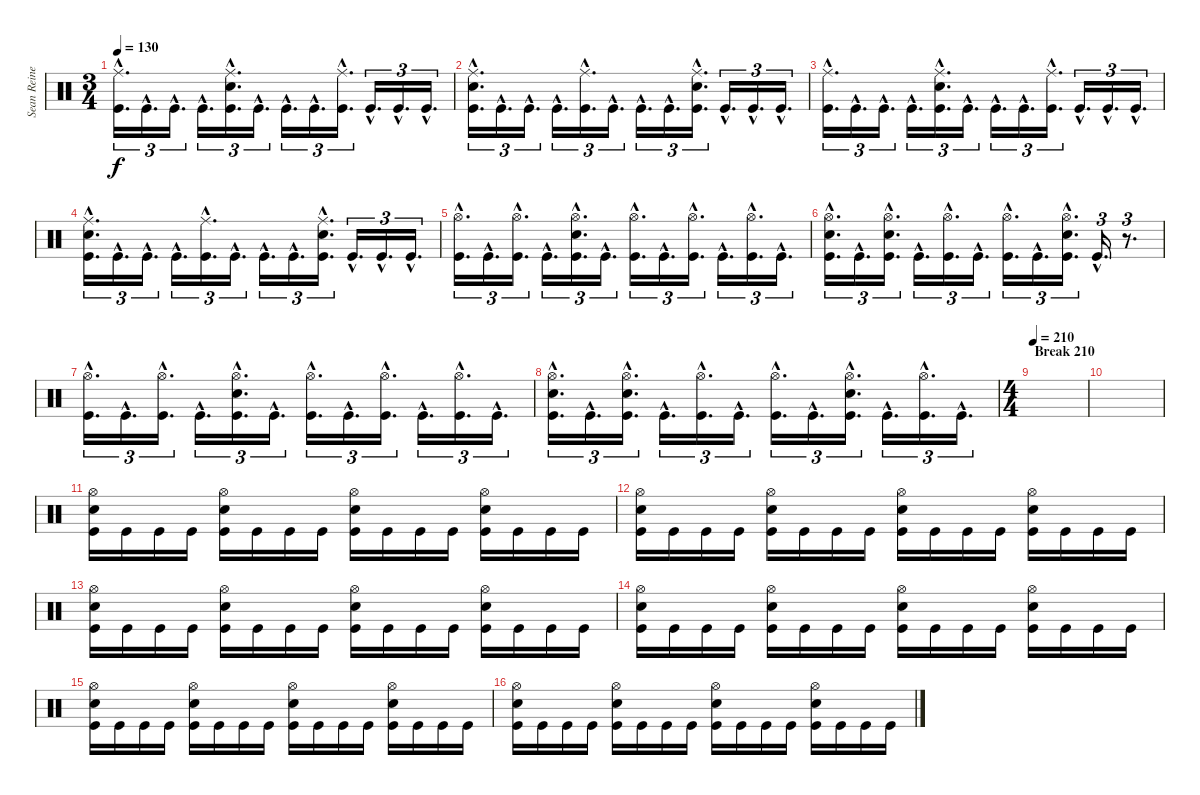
\track ("Sean Reinert" "Sean Reine") {instrument percussion}
\staff {score}
\articulation defaults
\ts (3 4)
\tempo 130
\clef neutral
\ks c
("Ride (middle)"{hac} "Kick (hit)"{hac}).16{d tu (3 2) dy f} "Kick (hit)"{hac}.16{d tu (3 2)} "Kick (hit)"{hac}.16{d tu (3 2)} "Kick (hit)"{hac}.16{d tu (3 2)} ("Ride (middle)"{hac} "Snare (hit) 2"{hac} "Kick (hit)"{hac}).16{d tu (3 2)} "Kick (hit)"{hac}.16{d tu (3 2)} "Kick (hit)"{hac}.16{d tu (3 2)} "Kick (hit)"{hac}.16{d tu (3 2)} ("Ride (middle)"{hac} "Kick (hit)"{hac}).16{d tu (3 2)} "Kick (hit)"{hac}.16{d tu (3 2)} "Kick (hit)"{hac}.16{d tu (3 2)} "Kick (hit)"{hac}.16{d tu (3 2)} |
("Ride (middle)"{hac} "Snare (hit) 2"{hac} "Kick (hit)"{hac}).16{d tu (3 2)} "Kick (hit)"{hac}.16{d tu (3 2)} "Kick (hit)"{hac}.16{d tu (3 2)} "Kick (hit)"{hac}.16{d tu (3 2)} ("Ride (middle)"{hac} "Kick (hit)"{hac}).16{d tu (3 2)} "Kick (hit)"{hac}.16{d tu (3 2)} "Kick (hit)"{hac}.16{d tu (3 2)} "Kick (hit)"{hac}.16{d tu (3 2)} ("Ride (middle)"{hac} "Snare (hit) 2"{hac} "Kick (hit)"{hac}).16{d tu (3 2)} "Kick (hit)"{hac}.16{d tu (3 2)} "Kick (hit)"{hac}.16{d tu (3 2)} "Kick (hit)"{hac}.16{d tu (3 2)} |
("Ride (middle)"{hac} "Kick (hit)"{hac}).16{d tu (3 2)} "Kick (hit)"{hac}.16{d tu (3 2)} "Kick (hit)"{hac}.16{d tu (3 2)} "Kick (hit)"{hac}.16{d tu (3 2)} ("Ride (middle)"{hac} "Snare (hit) 2"{hac} "Kick (hit)"{hac}).16{d tu (3 2)} "Kick (hit)"{hac}.16{d tu (3 2)} "Kick (hit)"{hac}.16{d tu (3 2)} "Kick (hit)"{hac}.16{d tu (3 2)} ("Ride (middle)"{hac} "Kick (hit)"{hac}).16{d tu (3 2)} "Kick (hit)"{hac}.16{d tu (3 2)} "Kick (hit)"{hac}.16{d tu (3 2)} "Kick (hit)"{hac}.16{d tu (3 2)} |
("Ride (middle)"{hac} "Snare (hit) 2"{hac} "Kick (hit)"{hac}).16{d tu (3 2)} "Kick (hit)"{hac}.16{d tu (3 2)} "Kick (hit)"{hac}.16{d tu (3 2)} "Kick (hit)"{hac}.16{d tu (3 2)} ("Ride (middle)"{hac} "Kick (hit)"{hac}).16{d tu (3 2)} "Kick (hit)"{hac}.16{d tu (3 2)} "Kick (hit)"{hac}.16{d tu (3 2)} "Kick (hit)"{hac}.16{d tu (3 2)} ("Ride (middle)"{hac} "Snare (hit) 2"{hac} "Kick (hit)"{hac}).16{d tu (3 2)} "Kick (hit)"{hac}.16{d tu (3 2)} "Kick (hit)"{hac}.16{d tu (3 2)} "Kick (hit)"{hac}.16{d tu (3 2)} |
("Hi-Hat (open)"{hac} "Kick (hit)"{hac}).16{d tu (3 2)} "Kick (hit)"{hac}.16{d tu (3 2)} ("Hi-Hat (open)"{hac} "Kick (hit)"{hac}).16{d tu (3 2)} "Kick (hit)"{hac}.16{d tu (3 2)} ("Hi-Hat (open)"{hac} "Snare (hit) 2"{hac} "Kick (hit)"{hac}).16{d tu (3 2)} "Kick (hit)"{hac}.16{d tu (3 2)} ("Hi-Hat (open)"{hac} "Kick (hit)"{hac}).16{d tu (3 2)} "Kick (hit)"{hac}.16{d tu (3 2)} ("Hi-Hat (open)"{hac} "Kick (hit)"{hac}).16{d tu (3 2)} "Kick (hit)"{hac}.16{d tu (3 2)} ("Hi-Hat (open)"{hac} "Kick (hit)"{hac}).16{d tu (3 2)} "Kick (hit)"{hac}.16{d tu (3 2)} |
("Hi-Hat (open)"{hac} "Snare (hit) 2"{hac} "Kick (hit)"{hac}).16{d tu (3 2)} "Kick (hit)"{hac}.16{d tu (3 2)} ("Hi-Hat (open)"{hac} "Snare (hit) 2"{hac} "Kick (hit)"{hac}).16{d tu (3 2)} "Kick (hit)"{hac}.16{d tu (3 2)} ("Hi-Hat (open)"{hac} "Kick (hit)"{hac}).16{d tu (3 2)} "Kick (hit)"{hac}.16{d tu (3 2)} ("Hi-Hat (open)"{hac} "Kick (hit)"{hac}).16{d tu (3 2)} "Kick (hit)"{hac}.16{d tu (3 2)} ("Hi-Hat (open)"{hac} "Snare (hit) 2"{hac} "Kick (hit)"{hac}).16{d tu (3 2)} "Kick (hit)"{hac}.16{d tu (3 2)} r.8{d tu (3 2)} |
("Hi-Hat (open)"{hac} "Kick (hit)"{hac}).16{d tu (3 2)} "Kick (hit)"{hac}.16{d tu (3 2)} ("Hi-Hat (open)"{hac} "Kick (hit)"{hac}).16{d tu (3 2)} "Kick (hit)"{hac}.16{d tu (3 2)} ("Hi-Hat (open)"{hac} "Snare (hit) 2"{hac} "Kick (hit)"{hac}).16{d tu (3 2)} "Kick (hit)"{hac}.16{d tu (3 2)} ("Hi-Hat (open)"{hac} "Kick (hit)"{hac}).16{d tu (3 2)} "Kick (hit)"{hac}.16{d tu (3 2)} ("Hi-Hat (open)"{hac} "Kick (hit)"{hac}).16{d tu (3 2)} "Kick (hit)"{hac}.16{d tu (3 2)} ("Hi-Hat (open)"{hac} "Kick (hit)"{hac}).16{d tu (3 2)} "Kick (hit)"{hac}.16{d tu (3 2)} |
("Hi-Hat (open)"{hac} "Snare (hit) 2"{hac} "Kick (hit)"{hac}).16{d tu (3 2)} "Kick (hit)"{hac}.16{d tu (3 2)} ("Hi-Hat (open)"{hac} "Snare (hit) 2"{hac} "Kick (hit)"{hac}).16{d tu (3 2)} "Kick (hit)"{hac}.16{d tu (3 2)} ("Hi-Hat (open)"{hac} "Kick (hit)"{hac}).16{d tu (3 2)} "Kick (hit)"{hac}.16{d tu (3 2)} ("Hi-Hat (open)"{hac} "Kick (hit)"{hac}).16{d tu (3 2)} "Kick (hit)"{hac}.16{d tu (3 2)} ("Hi-Hat (open)"{hac} "Snare (hit) 2"{hac} "Kick (hit)"{hac}).16{d tu (3 2)} "Kick (hit)"{hac}.16{d tu (3 2)} ("Hi-Hat (open)"{hac} "Kick (hit)"{hac}).16{d tu (3 2)} "Kick (hit)"{hac}.16{d tu (3 2)} |
\ts (4 4)
\section ("" "Break 210")
\tempo 210
|
|
("Hi-Hat (open)" "Snare (hit) 2" "Kick (hit)").16 "Kick (hit)".16 "Kick (hit)".16 "Kick (hit)".16 ("Hi-Hat (open)" "Snare (hit) 2" "Kick (hit)").16 "Kick (hit)".16 "Kick (hit)".16 "Kick (hit)".16 ("Hi-Hat (open)" "Snare (hit) 2" "Kick (hit)").16 "Kick (hit)".16 "Kick (hit)".16 "Kick (hit)".16 ("Hi-Hat (open)" "Snare (hit) 2" "Kick (hit)").16 "Kick (hit)".16 "Kick (hit)".16 "Kick (hit)".16 |
("Hi-Hat (open)" "Snare (hit) 2" "Kick (hit)").16 "Kick (hit)".16 "Kick (hit)".16 "Kick (hit)".16 ("Hi-Hat (open)" "Snare (hit) 2" "Kick (hit)").16 "Kick (hit)".16 "Kick (hit)".16 "Kick (hit)".16 ("Hi-Hat (open)" "Snare (hit) 2" "Kick (hit)").16 "Kick (hit)".16 "Kick (hit)".16 "Kick (hit)".16 ("Hi-Hat (open)" "Snare (hit) 2" "Kick (hit)").16 "Kick (hit)".16 "Kick (hit)".16 "Kick (hit)".16 |
("Hi-Hat (open)" "Snare (hit) 2" "Kick (hit)").16 "Kick (hit)".16 "Kick (hit)".16 "Kick (hit)".16 ("Hi-Hat (open)" "Snare (hit) 2" "Kick (hit)").16 "Kick (hit)".16 "Kick (hit)".16 "Kick (hit)".16 ("Hi-Hat (open)" "Snare (hit) 2" "Kick (hit)").16 "Kick (hit)".16 "Kick (hit)".16 "Kick (hit)".16 ("Hi-Hat (open)" "Snare (hit) 2" "Kick (hit)").16 "Kick (hit)".16 "Kick (hit)".16 "Kick (hit)".16 |
("Hi-Hat (open)" "Snare (hit) 2" "Kick (hit)").16 "Kick (hit)".16 "Kick (hit)".16 "Kick (hit)".16 ("Hi-Hat (open)" "Snare (hit) 2" "Kick (hit)").16 "Kick (hit)".16 "Kick (hit)".16 "Kick (hit)".16 ("Hi-Hat (open)" "Snare (hit) 2" "Kick (hit)").16 "Kick (hit)".16 "Kick (hit)".16 "Kick (hit)".16 ("Hi-Hat (open)" "Snare (hit) 2" "Kick (hit)").16 "Kick (hit)".16 "Kick (hit)".16 "Kick (hit)".16 |
("Hi-Hat (open)" "Snare (hit) 2" "Kick (hit)").16 "Kick (hit)".16 "Kick (hit)".16 "Kick (hit)".16 ("Hi-Hat (open)" "Snare (hit) 2" "Kick (hit)").16 "Kick (hit)".16 "Kick (hit)".16 "Kick (hit)".16 ("Hi-Hat (open)" "Snare (hit) 2" "Kick (hit)").16 "Kick (hit)".16 "Kick (hit)".16 "Kick (hit)".16 ("Hi-Hat (open)" "Snare (hit) 2" "Kick (hit)").16 "Kick (hit)".16 "Kick (hit)".16 "Kick (hit)".16 |
("Hi-Hat (open)" "Snare (hit) 2" "Kick (hit)").16 "Kick (hit)".16 "Kick (hit)".16 "Kick (hit)".16 ("Hi-Hat (open)" "Snare (hit) 2" "Kick (hit)").16 "Kick (hit)".16 "Kick (hit)".16 "Kick (hit)".16 ("Hi-Hat (open)" "Snare (hit) 2" "Kick (hit)").16 "Kick (hit)".16 "Kick (hit)".16 "Kick (hit)".16 ("Hi-Hat (open)" "Snare (hit) 2" "Kick (hit)").16 "Kick (hit)".16 "Kick (hit)".16 "Kick (hit)".16
